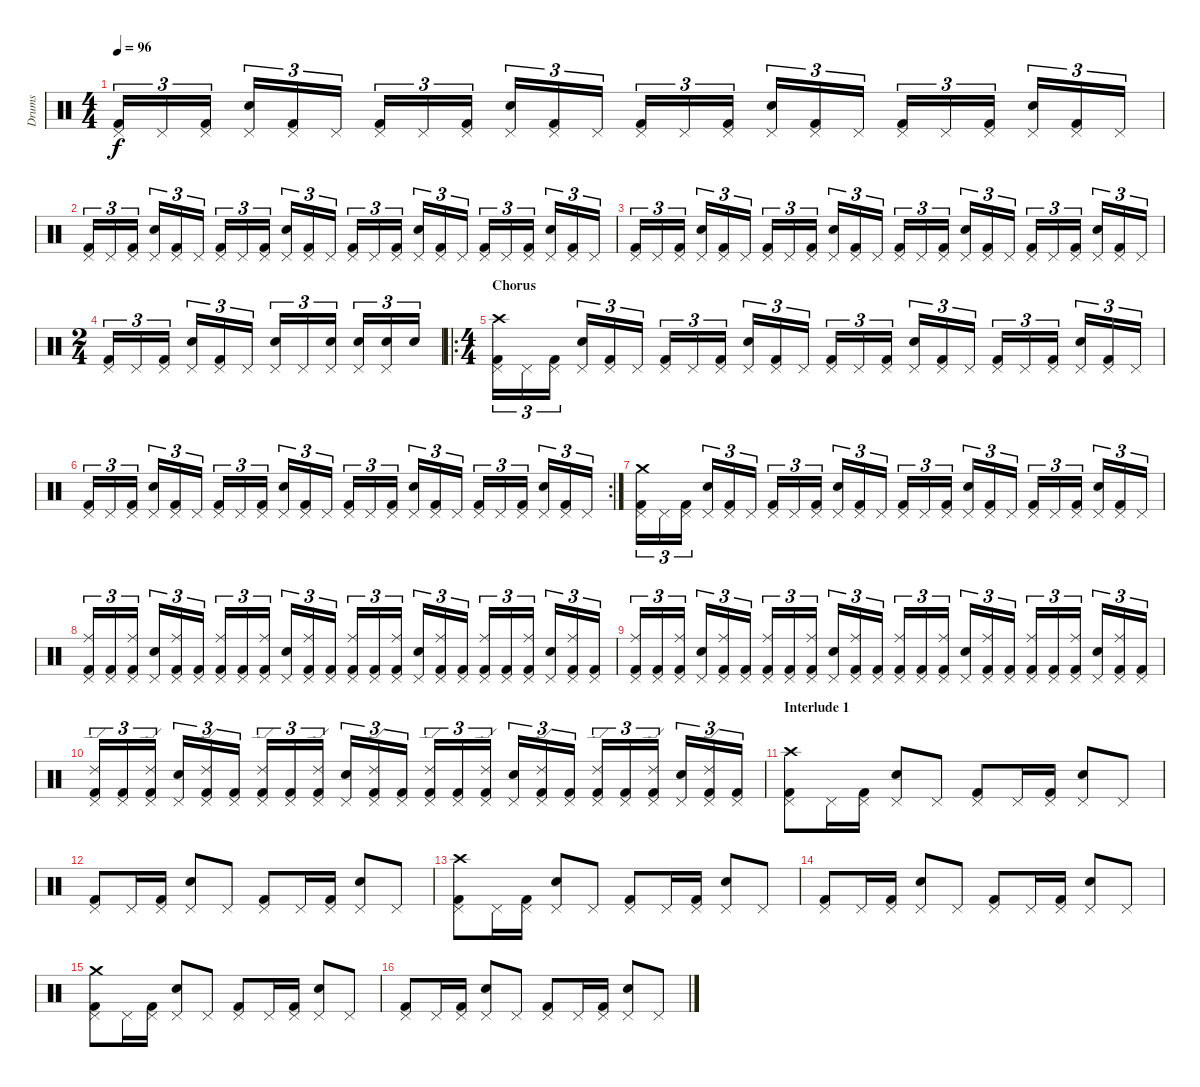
\track ("Drums" "Drums") {instrument percussion}
\staff {score}
\articulation defaults
\ts (4 4)
\tempo 96
\clef neutral
\ks c
("Kick (hit) 2" "Pedal Hi-Hat (hit)").16{tu (3 2) dy f} "Pedal Hi-Hat (hit)".16{tu (3 2)} ("Kick (hit) 2" "Pedal Hi-Hat (hit)").16{tu (3 2)} ("Snare (hit) 2" "Pedal Hi-Hat (hit)").16{tu (3 2)} ("Kick (hit) 2" "Pedal Hi-Hat (hit)").16{tu (3 2)} "Pedal Hi-Hat (hit)".16{tu (3 2)} ("Kick (hit) 2" "Pedal Hi-Hat (hit)").16{tu (3 2)} "Pedal Hi-Hat (hit)".16{tu (3 2)} ("Kick (hit) 2" "Pedal Hi-Hat (hit)").16{tu (3 2)} ("Snare (hit) 2" "Pedal Hi-Hat (hit)").16{tu (3 2)} ("Kick (hit) 2" "Pedal Hi-Hat (hit)").16{tu (3 2)} "Pedal Hi-Hat (hit)".16{tu (3 2)} ("Kick (hit) 2" "Pedal Hi-Hat (hit)").16{tu (3 2)} "Pedal Hi-Hat (hit)".16{tu (3 2)} ("Kick (hit) 2" "Pedal Hi-Hat (hit)").16{tu (3 2)} ("Snare (hit) 2" "Pedal Hi-Hat (hit)").16{tu (3 2)} ("Kick (hit) 2" "Pedal Hi-Hat (hit)").16{tu (3 2)} "Pedal Hi-Hat (hit)".16{tu (3 2)} ("Kick (hit) 2" "Pedal Hi-Hat (hit)").16{tu (3 2)} "Pedal Hi-Hat (hit)".16{tu (3 2)} ("Kick (hit) 2" "Pedal Hi-Hat (hit)").16{tu (3 2)} ("Snare (hit) 2" "Pedal Hi-Hat (hit)").16{tu (3 2)} ("Kick (hit) 2" "Pedal Hi-Hat (hit)").16{tu (3 2)} "Pedal Hi-Hat (hit)".16{tu (3 2)} |
("Kick (hit) 2" "Pedal Hi-Hat (hit)").16{tu (3 2)} "Pedal Hi-Hat (hit)".16{tu (3 2)} ("Kick (hit) 2" "Pedal Hi-Hat (hit)").16{tu (3 2)} ("Snare (hit) 2" "Pedal Hi-Hat (hit)").16{tu (3 2)} ("Kick (hit) 2" "Pedal Hi-Hat (hit)").16{tu (3 2)} "Pedal Hi-Hat (hit)".16{tu (3 2)} ("Kick (hit) 2" "Pedal Hi-Hat (hit)").16{tu (3 2)} "Pedal Hi-Hat (hit)".16{tu (3 2)} ("Kick (hit) 2" "Pedal Hi-Hat (hit)").16{tu (3 2)} ("Snare (hit) 2" "Pedal Hi-Hat (hit)").16{tu (3 2)} ("Kick (hit) 2" "Pedal Hi-Hat (hit)").16{tu (3 2)} "Pedal Hi-Hat (hit)".16{tu (3 2)} ("Kick (hit) 2" "Pedal Hi-Hat (hit)").16{tu (3 2)} "Pedal Hi-Hat (hit)".16{tu (3 2)} ("Kick (hit) 2" "Pedal Hi-Hat (hit)").16{tu (3 2)} ("Snare (hit) 2" "Pedal Hi-Hat (hit)").16{tu (3 2)} ("Kick (hit) 2" "Pedal Hi-Hat (hit)").16{tu (3 2)} "Pedal Hi-Hat (hit)".16{tu (3 2)} ("Kick (hit) 2" "Pedal Hi-Hat (hit)").16{tu (3 2)} "Pedal Hi-Hat (hit)".16{tu (3 2)} ("Kick (hit) 2" "Pedal Hi-Hat (hit)").16{tu (3 2)} ("Snare (hit) 2" "Pedal Hi-Hat (hit)").16{tu (3 2)} ("Kick (hit) 2" "Pedal Hi-Hat (hit)").16{tu (3 2)} "Pedal Hi-Hat (hit)".16{tu (3 2)} |
("Kick (hit) 2" "Pedal Hi-Hat (hit)").16{tu (3 2)} "Pedal Hi-Hat (hit)".16{tu (3 2)} ("Kick (hit) 2" "Pedal Hi-Hat (hit)").16{tu (3 2)} ("Snare (hit) 2" "Pedal Hi-Hat (hit)").16{tu (3 2)} ("Kick (hit) 2" "Pedal Hi-Hat (hit)").16{tu (3 2)} "Pedal Hi-Hat (hit)".16{tu (3 2)} ("Kick (hit) 2" "Pedal Hi-Hat (hit)").16{tu (3 2)} "Pedal Hi-Hat (hit)".16{tu (3 2)} ("Kick (hit) 2" "Pedal Hi-Hat (hit)").16{tu (3 2)} ("Snare (hit) 2" "Pedal Hi-Hat (hit)").16{tu (3 2)} ("Kick (hit) 2" "Pedal Hi-Hat (hit)").16{tu (3 2)} "Pedal Hi-Hat (hit)".16{tu (3 2)} ("Kick (hit) 2" "Pedal Hi-Hat (hit)").16{tu (3 2)} "Pedal Hi-Hat (hit)".16{tu (3 2)} ("Kick (hit) 2" "Pedal Hi-Hat (hit)").16{tu (3 2)} ("Snare (hit) 2" "Pedal Hi-Hat (hit)").16{tu (3 2)} ("Kick (hit) 2" "Pedal Hi-Hat (hit)").16{tu (3 2)} "Pedal Hi-Hat (hit)".16{tu (3 2)} ("Kick (hit) 2" "Pedal Hi-Hat (hit)").16{tu (3 2)} "Pedal Hi-Hat (hit)".16{tu (3 2)} ("Kick (hit) 2" "Pedal Hi-Hat (hit)").16{tu (3 2)} ("Snare (hit) 2" "Pedal Hi-Hat (hit)").16{tu (3 2)} ("Kick (hit) 2" "Pedal Hi-Hat (hit)").16{tu (3 2)} "Pedal Hi-Hat (hit)".16{tu (3 2)} |
\ts (2 4)
("Kick (hit) 2" "Pedal Hi-Hat (hit)").16{tu (3 2)} "Pedal Hi-Hat (hit)".16{tu (3 2)} ("Kick (hit) 2" "Pedal Hi-Hat (hit)").16{tu (3 2)} ("Snare (hit) 2" "Pedal Hi-Hat (hit)").16{tu (3 2)} ("Kick (hit) 2" "Pedal Hi-Hat (hit)").16{tu (3 2)} "Pedal Hi-Hat (hit)".16{tu (3 2)} ("Snare (hit) 2" "Pedal Hi-Hat (hit)").16{tu (3 2)} "Pedal Hi-Hat (hit)".16{tu (3 2)} ("Snare (hit) 2" "Pedal Hi-Hat (hit)").16{tu (3 2)} ("Snare (hit) 2" "Pedal Hi-Hat (hit)").16{tu (3 2)} ("Snare (hit) 2" "Pedal Hi-Hat (hit)").16{tu (3 2)} "Snare (hit) 2".16{tu (3 2)} |
\ro
\ts (4 4)
\section ("" "Chorus")
("Kick (hit) 2" "Pedal Hi-Hat (hit)" "Crash high (hit)").16{tu (3 2)} "Pedal Hi-Hat (hit)".16{tu (3 2)} ("Kick (hit) 2" "Pedal Hi-Hat (hit)").16{tu (3 2)} ("Snare (hit) 2" "Pedal Hi-Hat (hit)").16{tu (3 2)} ("Kick (hit) 2" "Pedal Hi-Hat (hit)").16{tu (3 2)} "Pedal Hi-Hat (hit)".16{tu (3 2)} ("Kick (hit) 2" "Pedal Hi-Hat (hit)").16{tu (3 2)} "Pedal Hi-Hat (hit)".16{tu (3 2)} ("Kick (hit) 2" "Pedal Hi-Hat (hit)").16{tu (3 2)} ("Snare (hit) 2" "Pedal Hi-Hat (hit)").16{tu (3 2)} ("Kick (hit) 2" "Pedal Hi-Hat (hit)").16{tu (3 2)} "Pedal Hi-Hat (hit)".16{tu (3 2)} ("Kick (hit) 2" "Pedal Hi-Hat (hit)").16{tu (3 2)} "Pedal Hi-Hat (hit)".16{tu (3 2)} ("Kick (hit) 2" "Pedal Hi-Hat (hit)").16{tu (3 2)} ("Snare (hit) 2" "Pedal Hi-Hat (hit)").16{tu (3 2)} ("Kick (hit) 2" "Pedal Hi-Hat (hit)").16{tu (3 2)} "Pedal Hi-Hat (hit)".16{tu (3 2)} ("Kick (hit) 2" "Pedal Hi-Hat (hit)").16{tu (3 2)} "Pedal Hi-Hat (hit)".16{tu (3 2)} ("Kick (hit) 2" "Pedal Hi-Hat (hit)").16{tu (3 2)} ("Snare (hit) 2" "Pedal Hi-Hat (hit)").16{tu (3 2)} ("Kick (hit) 2" "Pedal Hi-Hat (hit)").16{tu (3 2)} "Pedal Hi-Hat (hit)".16{tu (3 2)} |
\rc 2
("Kick (hit) 2" "Pedal Hi-Hat (hit)").16{tu (3 2)} "Pedal Hi-Hat (hit)".16{tu (3 2)} ("Kick (hit) 2" "Pedal Hi-Hat (hit)").16{tu (3 2)} ("Snare (hit) 2" "Pedal Hi-Hat (hit)").16{tu (3 2)} ("Kick (hit) 2" "Pedal Hi-Hat (hit)").16{tu (3 2)} "Pedal Hi-Hat (hit)".16{tu (3 2)} ("Kick (hit) 2" "Pedal Hi-Hat (hit)").16{tu (3 2)} "Pedal Hi-Hat (hit)".16{tu (3 2)} ("Kick (hit) 2" "Pedal Hi-Hat (hit)").16{tu (3 2)} ("Snare (hit) 2" "Pedal Hi-Hat (hit)").16{tu (3 2)} ("Kick (hit) 2" "Pedal Hi-Hat (hit)").16{tu (3 2)} "Pedal Hi-Hat (hit)".16{tu (3 2)} ("Kick (hit) 2" "Pedal Hi-Hat (hit)").16{tu (3 2)} "Pedal Hi-Hat (hit)".16{tu (3 2)} ("Kick (hit) 2" "Pedal Hi-Hat (hit)").16{tu (3 2)} ("Snare (hit) 2" "Pedal Hi-Hat (hit)").16{tu (3 2)} ("Kick (hit) 2" "Pedal Hi-Hat (hit)").16{tu (3 2)} "Pedal Hi-Hat (hit)".16{tu (3 2)} ("Kick (hit) 2" "Pedal Hi-Hat (hit)").16{tu (3 2)} "Pedal Hi-Hat (hit)".16{tu (3 2)} ("Kick (hit) 2" "Pedal Hi-Hat (hit)").16{tu (3 2)} ("Snare (hit) 2" "Pedal Hi-Hat (hit)").16{tu (3 2)} ("Kick (hit) 2" "Pedal Hi-Hat (hit)").16{tu (3 2)} "Pedal Hi-Hat (hit)".16{tu (3 2)} |
("Kick (hit) 2" "Pedal Hi-Hat (hit)" "Crash medium (hit)").16{tu (3 2)} "Pedal Hi-Hat (hit)".16{tu (3 2)} ("Kick (hit) 2" "Pedal Hi-Hat (hit)").16{tu (3 2)} ("Snare (hit) 2" "Pedal Hi-Hat (hit)").16{tu (3 2)} ("Kick (hit) 2" "Pedal Hi-Hat (hit)").16{tu (3 2)} "Pedal Hi-Hat (hit)".16{tu (3 2)} ("Kick (hit) 2" "Pedal Hi-Hat (hit)").16{tu (3 2)} "Pedal Hi-Hat (hit)".16{tu (3 2)} ("Kick (hit) 2" "Pedal Hi-Hat (hit)").16{tu (3 2)} ("Snare (hit) 2" "Pedal Hi-Hat (hit)").16{tu (3 2)} ("Kick (hit) 2" "Pedal Hi-Hat (hit)").16{tu (3 2)} "Pedal Hi-Hat (hit)".16{tu (3 2)} ("Kick (hit) 2" "Pedal Hi-Hat (hit)").16{tu (3 2)} "Pedal Hi-Hat (hit)".16{tu (3 2)} ("Kick (hit) 2" "Pedal Hi-Hat (hit)").16{tu (3 2)} ("Snare (hit) 2" "Pedal Hi-Hat (hit)").16{tu (3 2)} ("Kick (hit) 2" "Pedal Hi-Hat (hit)").16{tu (3 2)} "Pedal Hi-Hat (hit)".16{tu (3 2)} ("Kick (hit) 2" "Pedal Hi-Hat (hit)").16{tu (3 2)} "Pedal Hi-Hat (hit)".16{tu (3 2)} ("Kick (hit) 2" "Pedal Hi-Hat (hit)").16{tu (3 2)} ("Snare (hit) 2" "Pedal Hi-Hat (hit)").16{tu (3 2)} ("Kick (hit) 2" "Pedal Hi-Hat (hit)").16{tu (3 2)} "Pedal Hi-Hat (hit)".16{tu (3 2)} |
("Kick (hit) 2" "Pedal Hi-Hat (hit)" "Ride (middle)").16{tu (3 2)} ("Kick (hit) 2" "Pedal Hi-Hat (hit)").16{tu (3 2)} ("Kick (hit) 2" "Pedal Hi-Hat (hit)" "Ride (middle)").16{tu (3 2)} ("Snare (hit) 2" "Pedal Hi-Hat (hit)").16{tu (3 2)} ("Kick (hit) 2" "Pedal Hi-Hat (hit)" "Ride (middle)").16{tu (3 2)} ("Kick (hit) 2" "Pedal Hi-Hat (hit)").16{tu (3 2)} ("Kick (hit) 2" "Pedal Hi-Hat (hit)" "Ride (middle)").16{tu (3 2)} ("Kick (hit) 2" "Pedal Hi-Hat (hit)").16{tu (3 2)} ("Kick (hit) 2" "Pedal Hi-Hat (hit)" "Ride (middle)").16{tu (3 2)} ("Snare (hit) 2" "Pedal Hi-Hat (hit)").16{tu (3 2)} ("Kick (hit) 2" "Pedal Hi-Hat (hit)" "Ride (middle)").16{tu (3 2)} ("Kick (hit) 2" "Pedal Hi-Hat (hit)").16{tu (3 2)} ("Kick (hit) 2" "Pedal Hi-Hat (hit)" "Ride (middle)").16{tu (3 2)} ("Kick (hit) 2" "Pedal Hi-Hat (hit)").16{tu (3 2)} ("Kick (hit) 2" "Pedal Hi-Hat (hit)" "Ride (middle)").16{tu (3 2)} ("Snare (hit) 2" "Pedal Hi-Hat (hit)").16{tu (3 2)} ("Kick (hit) 2" "Pedal Hi-Hat (hit)" "Ride (middle)").16{tu (3 2)} ("Kick (hit) 2" "Pedal Hi-Hat (hit)").16{tu (3 2)} ("Kick (hit) 2" "Pedal Hi-Hat (hit)" "Ride (middle)").16{tu (3 2)} ("Kick (hit) 2" "Pedal Hi-Hat (hit)").16{tu (3 2)} ("Kick (hit) 2" "Pedal Hi-Hat (hit)" "Ride (middle)").16{tu (3 2)} ("Snare (hit) 2" "Pedal Hi-Hat (hit)").16{tu (3 2)} ("Kick (hit) 2" "Pedal Hi-Hat (hit)" "Ride (middle)").16{tu (3 2)} ("Kick (hit) 2" "Pedal Hi-Hat (hit)").16{tu (3 2)} |
("Kick (hit) 2" "Pedal Hi-Hat (hit)" "Ride (middle)").16{tu (3 2)} ("Kick (hit) 2" "Pedal Hi-Hat (hit)").16{tu (3 2)} ("Kick (hit) 2" "Pedal Hi-Hat (hit)" "Ride (middle)").16{tu (3 2)} ("Snare (hit) 2" "Pedal Hi-Hat (hit)").16{tu (3 2)} ("Kick (hit) 2" "Pedal Hi-Hat (hit)" "Ride (middle)").16{tu (3 2)} ("Kick (hit) 2" "Pedal Hi-Hat (hit)").16{tu (3 2)} ("Kick (hit) 2" "Pedal Hi-Hat (hit)" "Ride (middle)").16{tu (3 2)} ("Kick (hit) 2" "Pedal Hi-Hat (hit)").16{tu (3 2)} ("Kick (hit) 2" "Pedal Hi-Hat (hit)" "Ride (middle)").16{tu (3 2)} ("Snare (hit) 2" "Pedal Hi-Hat (hit)").16{tu (3 2)} ("Kick (hit) 2" "Pedal Hi-Hat (hit)" "Ride (middle)").16{tu (3 2)} ("Kick (hit) 2" "Pedal Hi-Hat (hit)").16{tu (3 2)} ("Kick (hit) 2" "Pedal Hi-Hat (hit)" "Ride (middle)").16{tu (3 2)} ("Kick (hit) 2" "Pedal Hi-Hat (hit)").16{tu (3 2)} ("Kick (hit) 2" "Pedal Hi-Hat (hit)" "Ride (middle)").16{tu (3 2)} ("Snare (hit) 2" "Pedal Hi-Hat (hit)").16{tu (3 2)} ("Kick (hit) 2" "Pedal Hi-Hat (hit)" "Ride (middle)").16{tu (3 2)} ("Kick (hit) 2" "Pedal Hi-Hat (hit)").16{tu (3 2)} ("Kick (hit) 2" "Pedal Hi-Hat (hit)" "Ride (middle)").16{tu (3 2)} ("Kick (hit) 2" "Pedal Hi-Hat (hit)").16{tu (3 2)} ("Kick (hit) 2" "Pedal Hi-Hat (hit)" "Ride (middle)").16{tu (3 2)} ("Snare (hit) 2" "Pedal Hi-Hat (hit)").16{tu (3 2)} ("Kick (hit) 2" "Pedal Hi-Hat (hit)" "Ride (middle)").16{tu (3 2)} ("Kick (hit) 2" "Pedal Hi-Hat (hit)").16{tu (3 2)} |
("Kick (hit) 2" "Pedal Hi-Hat (hit)" "Ride (edge) 2").16{tu (3 2)} ("Kick (hit) 2" "Pedal Hi-Hat (hit)").16{tu (3 2)} ("Kick (hit) 2" "Pedal Hi-Hat (hit)" "Ride (edge) 2").16{tu (3 2)} ("Snare (hit) 2" "Pedal Hi-Hat (hit)").16{tu (3 2)} ("Kick (hit) 2" "Pedal Hi-Hat (hit)" "Ride (edge) 2").16{tu (3 2)} ("Kick (hit) 2" "Pedal Hi-Hat (hit)").16{tu (3 2)} ("Kick (hit) 2" "Pedal Hi-Hat (hit)" "Ride (edge) 2").16{tu (3 2)} ("Kick (hit) 2" "Pedal Hi-Hat (hit)").16{tu (3 2)} ("Kick (hit) 2" "Pedal Hi-Hat (hit)" "Ride (edge) 2").16{tu (3 2)} ("Snare (hit) 2" "Pedal Hi-Hat (hit)").16{tu (3 2)} ("Kick (hit) 2" "Pedal Hi-Hat (hit)" "Ride (edge) 2").16{tu (3 2)} ("Kick (hit) 2" "Pedal Hi-Hat (hit)").16{tu (3 2)} ("Kick (hit) 2" "Pedal Hi-Hat (hit)" "Ride (edge) 2").16{tu (3 2)} ("Kick (hit) 2" "Pedal Hi-Hat (hit)").16{tu (3 2)} ("Kick (hit) 2" "Pedal Hi-Hat (hit)" "Ride (edge) 2").16{tu (3 2)} ("Snare (hit) 2" "Pedal Hi-Hat (hit)").16{tu (3 2)} ("Kick (hit) 2" "Pedal Hi-Hat (hit)" "Ride (edge) 2").16{tu (3 2)} ("Kick (hit) 2" "Pedal Hi-Hat (hit)").16{tu (3 2)} ("Kick (hit) 2" "Pedal Hi-Hat (hit)" "Ride (edge) 2").16{tu (3 2)} ("Kick (hit) 2" "Pedal Hi-Hat (hit)").16{tu (3 2)} ("Kick (hit) 2" "Pedal Hi-Hat (hit)" "Ride (edge) 2").16{tu (3 2)} ("Snare (hit) 2" "Pedal Hi-Hat (hit)").16{tu (3 2)} ("Kick (hit) 2" "Pedal Hi-Hat (hit)" "Ride (edge) 2").16{tu (3 2)} ("Kick (hit) 2" "Pedal Hi-Hat (hit)").16{tu (3 2)} |
\section ("" "Interlude 1")
("Kick (hit) 2" "Pedal Hi-Hat (hit)" "Crash high (hit)").8 "Pedal Hi-Hat (hit)".16 ("Kick (hit) 2" "Pedal Hi-Hat (hit)").16 ("Snare (hit) 2" "Pedal Hi-Hat (hit)").8 "Pedal Hi-Hat (hit)".8 ("Kick (hit) 2" "Pedal Hi-Hat (hit)").8 "Pedal Hi-Hat (hit)".16 ("Kick (hit) 2" "Pedal Hi-Hat (hit)").16 ("Snare (hit) 2" "Pedal Hi-Hat (hit)").8 "Pedal Hi-Hat (hit)".8 |
("Kick (hit) 2" "Pedal Hi-Hat (hit)").8 "Pedal Hi-Hat (hit)".16 ("Kick (hit) 2" "Pedal Hi-Hat (hit)").16 ("Snare (hit) 2" "Pedal Hi-Hat (hit)").8 "Pedal Hi-Hat (hit)".8 ("Kick (hit) 2" "Pedal Hi-Hat (hit)").8 "Pedal Hi-Hat (hit)".16 ("Kick (hit) 2" "Pedal Hi-Hat (hit)").16 ("Snare (hit) 2" "Pedal Hi-Hat (hit)").8 "Pedal Hi-Hat (hit)".8 |
("Kick (hit) 2" "Pedal Hi-Hat (hit)" "Crash high (hit)").8 "Pedal Hi-Hat (hit)".16 ("Kick (hit) 2" "Pedal Hi-Hat (hit)").16 ("Snare (hit) 2" "Pedal Hi-Hat (hit)").8 "Pedal Hi-Hat (hit)".8 ("Kick (hit) 2" "Pedal Hi-Hat (hit)").8 "Pedal Hi-Hat (hit)".16 ("Kick (hit) 2" "Pedal Hi-Hat (hit)").16 ("Snare (hit) 2" "Pedal Hi-Hat (hit)").8 "Pedal Hi-Hat (hit)".8 |
("Kick (hit) 2" "Pedal Hi-Hat (hit)").8 "Pedal Hi-Hat (hit)".16 ("Kick (hit) 2" "Pedal Hi-Hat (hit)").16 ("Snare (hit) 2" "Pedal Hi-Hat (hit)").8 "Pedal Hi-Hat (hit)".8 ("Kick (hit) 2" "Pedal Hi-Hat (hit)").8 "Pedal Hi-Hat (hit)".16 ("Kick (hit) 2" "Pedal Hi-Hat (hit)").16 ("Snare (hit) 2" "Pedal Hi-Hat (hit)").8 "Pedal Hi-Hat (hit)".8 |
("Kick (hit) 2" "Pedal Hi-Hat (hit)" "Crash medium (hit)").8 "Pedal Hi-Hat (hit)".16 ("Kick (hit) 2" "Pedal Hi-Hat (hit)").16 ("Snare (hit) 2" "Pedal Hi-Hat (hit)").8 "Pedal Hi-Hat (hit)".8 ("Kick (hit) 2" "Pedal Hi-Hat (hit)").8 "Pedal Hi-Hat (hit)".16 ("Kick (hit) 2" "Pedal Hi-Hat (hit)").16 ("Snare (hit) 2" "Pedal Hi-Hat (hit)").8 "Pedal Hi-Hat (hit)".8 |
("Kick (hit) 2" "Pedal Hi-Hat (hit)").8 "Pedal Hi-Hat (hit)".16 ("Kick (hit) 2" "Pedal Hi-Hat (hit)").16 ("Snare (hit) 2" "Pedal Hi-Hat (hit)").8 "Pedal Hi-Hat (hit)".8 ("Kick (hit) 2" "Pedal Hi-Hat (hit)").8 "Pedal Hi-Hat (hit)".16 ("Kick (hit) 2" "Pedal Hi-Hat (hit)").16 ("Snare (hit) 2" "Pedal Hi-Hat (hit)").8 "Pedal Hi-Hat (hit)".8
